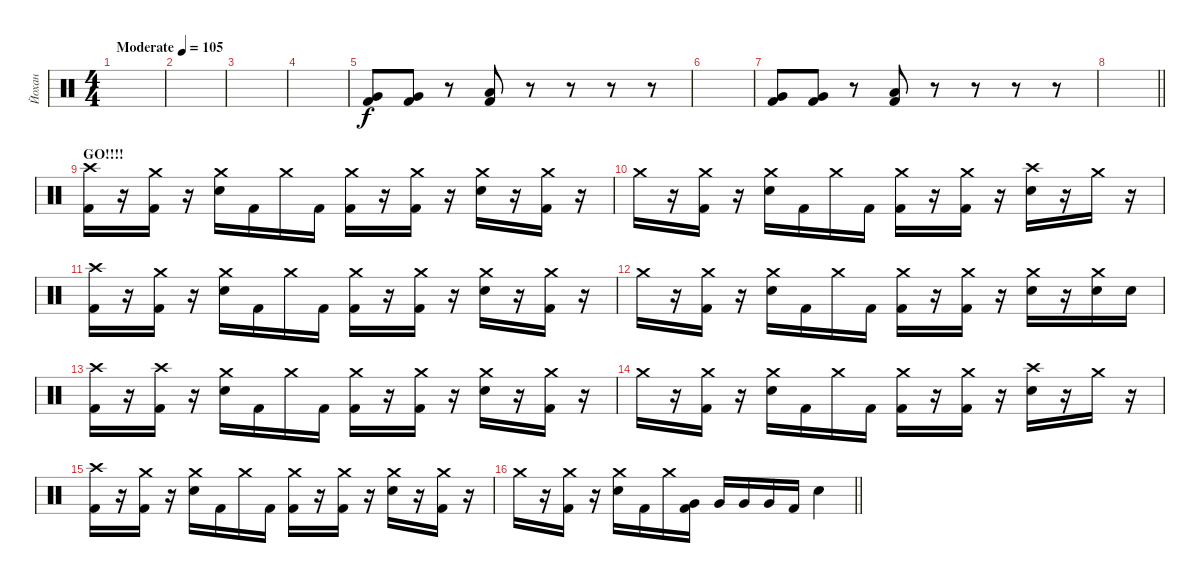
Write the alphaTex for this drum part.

\track ("Йохан" "Йохан") {instrument percussion}
\staff {score}
\articulation defaults
\ts (4 4)
\tempo (105 "Moderate")
\clef neutral
\ks c
|
|
|
|
("Very Low Tom (hit)" "Kick (hit) 2").8 ("Very Low Tom (hit)" "Kick (hit) 2").8 r.8 ("Low Tom (hit)" "Kick (hit) 2").8 r.8 r.8 r.8 r.8 |
|
("Very Low Tom (hit)" "Kick (hit) 2").8 ("Very Low Tom (hit)" "Kick (hit) 2").8 r.8 ("Low Tom (hit)" "Kick (hit) 2").8 r.8 r.8 r.8 r.8 |
\barLineRight lightlight
|
\section ("" "GO!!!!")
("Crash high (hit)" "Kick (hit) 2").16 r.16 ("Crash medium (hit)" "Kick (hit) 2").16 r.16 ("Crash medium (hit)" "Snare (hit) 2").16 "Kick (hit) 2".16 "Crash medium (hit)".16 "Kick (hit) 2".16 ("Crash medium (hit)" "Kick (hit) 2").16 r.16 ("Crash medium (hit)" "Kick (hit) 2").16 r.16 ("Crash medium (hit)" "Snare (hit) 2").16 r.16 ("Crash medium (hit)" "Kick (hit) 2").16 r.16 |
"Crash medium (hit)".16 r.16 ("Crash medium (hit)" "Kick (hit) 2").16 r.16 ("Crash medium (hit)" "Snare (hit) 2").16 "Kick (hit) 2".16 "Crash medium (hit)".16 "Kick (hit) 2".16 ("Crash medium (hit)" "Kick (hit) 2").16 r.16 ("Crash medium (hit)" "Kick (hit) 2").16 r.16 ("Crash high (hit)" "Snare (hit) 2").16 r.16 "Crash medium (hit)".16 r.16 |
("Crash high (hit)" "Kick (hit) 2").16 r.16 ("Crash medium (hit)" "Kick (hit) 2").16 r.16 ("Crash medium (hit)" "Snare (hit) 2").16 "Kick (hit) 2".16 "Crash medium (hit)".16 "Kick (hit) 2".16 ("Crash medium (hit)" "Kick (hit) 2").16 r.16 ("Crash medium (hit)" "Kick (hit) 2").16 r.16 ("Crash medium (hit)" "Snare (hit) 2").16 r.16 ("Crash medium (hit)" "Kick (hit) 2").16 r.16 |
"Crash medium (hit)".16 r.16 ("Crash medium (hit)" "Kick (hit) 2").16 r.16 ("Crash medium (hit)" "Snare (hit) 2").16 "Kick (hit) 2".16 "Crash medium (hit)".16 "Kick (hit) 2".16 ("Crash medium (hit)" "Kick (hit) 2").16 r.16 ("Crash medium (hit)" "Kick (hit) 2").16 r.16 ("Crash medium (hit)" "Snare (hit) 2").16 r.16 ("Crash medium (hit)" "Snare (hit) 2").16 "Snare (hit) 2".16 |
("Crash high (hit)" "Kick (hit) 2").16 r.16 ("Crash high (hit)" "Kick (hit) 2").16 r.16 ("Crash medium (hit)" "Snare (hit) 2").16 "Kick (hit) 2".16 "Crash medium (hit)".16 "Kick (hit) 2".16 ("Crash medium (hit)" "Kick (hit) 2").16 r.16 ("Crash medium (hit)" "Kick (hit) 2").16 r.16 ("Crash medium (hit)" "Snare (hit) 2").16 r.16 ("Crash medium (hit)" "Kick (hit) 2").16 r.16 |
"Crash medium (hit)".16 r.16 ("Crash medium (hit)" "Kick (hit) 2").16 r.16 ("Crash medium (hit)" "Snare (hit) 2").16 "Kick (hit) 2".16 "Crash medium (hit)".16 "Kick (hit) 2".16 ("Crash medium (hit)" "Kick (hit) 2").16 r.16 ("Crash medium (hit)" "Kick (hit) 2").16 r.16 ("Crash high (hit)" "Snare (hit) 2").16 r.16 "Crash medium (hit)".16 r.16 |
("Crash high (hit)" "Kick (hit) 2").16 r.16 ("Crash medium (hit)" "Kick (hit) 2").16 r.16 ("Crash medium (hit)" "Snare (hit) 2").16 "Kick (hit) 2".16 "Crash medium (hit)".16 "Kick (hit) 2".16 ("Crash medium (hit)" "Kick (hit) 2").16 r.16 ("Crash medium (hit)" "Kick (hit) 2").16 r.16 ("Crash medium (hit)" "Snare (hit) 2").16 r.16 ("Crash medium (hit)" "Kick (hit) 2").16 r.16 |
\barLineRight lightlight "Crash medium (hit)".16
r.16 ("Crash medium (hit)" "Kick (hit) 2").16 r.16 ("Crash medium (hit)" "Snare (hit) 2").16 "Kick (hit) 2".16 "Crash medium (hit)".16 ("Very Low Tom (hit)" "Kick (hit) 2").16 "Very Low Tom (hit)".16 "Very Low Tom (hit)".16 "Very Low Tom (hit)".16 "Kick (hit) 2".16 "Snare (hit) 2".4
